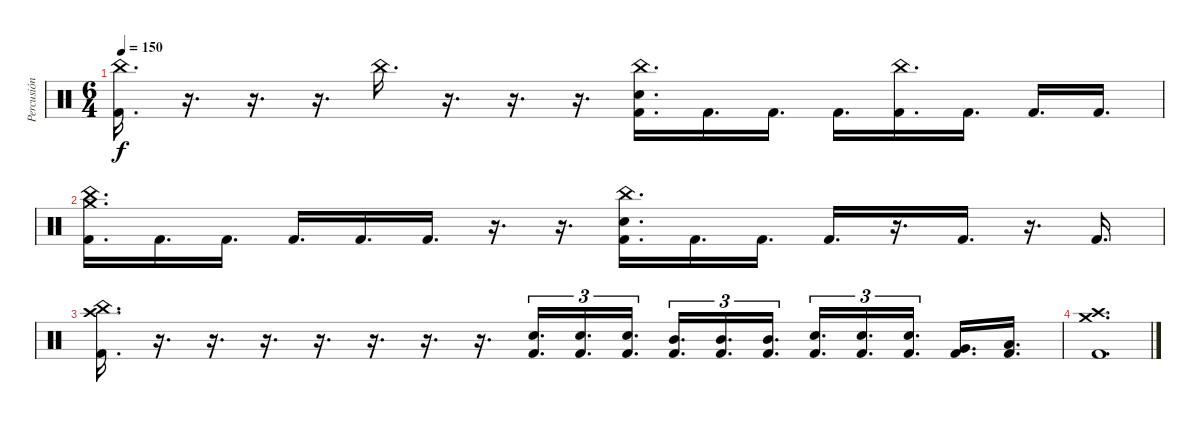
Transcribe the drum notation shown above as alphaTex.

\track ("Percusión" "Percusión") {instrument percussion}
\staff {score}
\articulation defaults
\ts (6 4)
\tempo 150
\clef neutral
\ks c
("China (hit)" "Kick (hit) 2").16{d dy f} r.16{d} r.16{d} r.16{d} "China (hit)".16{d} r.16{d} r.16{d} r.16{d} ("China (hit)" "Electric Snare (hit)" "Kick (hit) 2").16{d} "Kick (hit) 2".16{d} "Kick (hit) 2".16{d} "Kick (hit) 2".16{d} ("China (hit)" "Kick (hit) 2").16{d} "Kick (hit) 2".16{d} "Kick (hit) 2".16{d} "Kick (hit) 2".16{d} |
("China (hit)" "Crash medium (hit)" "Kick (hit) 2").16{d} "Kick (hit) 2".16{d} "Kick (hit) 2".16{d} "Kick (hit) 2".16{d} "Kick (hit) 2".16{d} "Kick (hit) 2".16{d} r.16{d} r.16{d} ("China (hit)" "Electric Snare (hit)" "Kick (hit) 2").16{d} "Kick (hit) 2".16{d} "Kick (hit) 2".16{d} "Kick (hit) 2".16{d} r.16{d} "Kick (hit) 2".16{d} r.16{d} "Kick (hit) 2".16{d} |
("China (hit)" "Crash high (hit)" "Kick (hit) 2").16{d} r.16{d} r.16{d} r.16{d} r.16{d} r.16{d} r.16{d} r.16{d} ("Electric Snare (hit)" "Kick (hit) 2").16{d tu (3 2)} ("Electric Snare (hit)" "Kick (hit) 2").16{d tu (3 2)} ("Electric Snare (hit)" "Kick (hit) 2").16{d tu (3 2)} ("Mid Tom (hit)" "Kick (hit) 2").16{d tu (3 2)} ("Mid Tom (hit)" "Kick (hit) 2").16{d tu (3 2)} ("Mid Tom (hit)" "Kick (hit) 2").16{d tu (3 2)} ("Electric Snare (hit)" "Kick (hit) 2").16{d tu (3 2)} ("Electric Snare (hit)" "Kick (hit) 2").16{d tu (3 2)} ("Electric Snare (hit)" "Kick (hit) 2").16{d tu (3 2) beam splitsecondary} ("Very Low Tom (hit)" "Kick (hit) 2").16{d} ("Low Floor Tom (hit)" "Kick (hit) 2").16{d} |
("Crash medium (hit)" "Crash high (hit)" "Kick (hit) 2").1{d volume 0}
